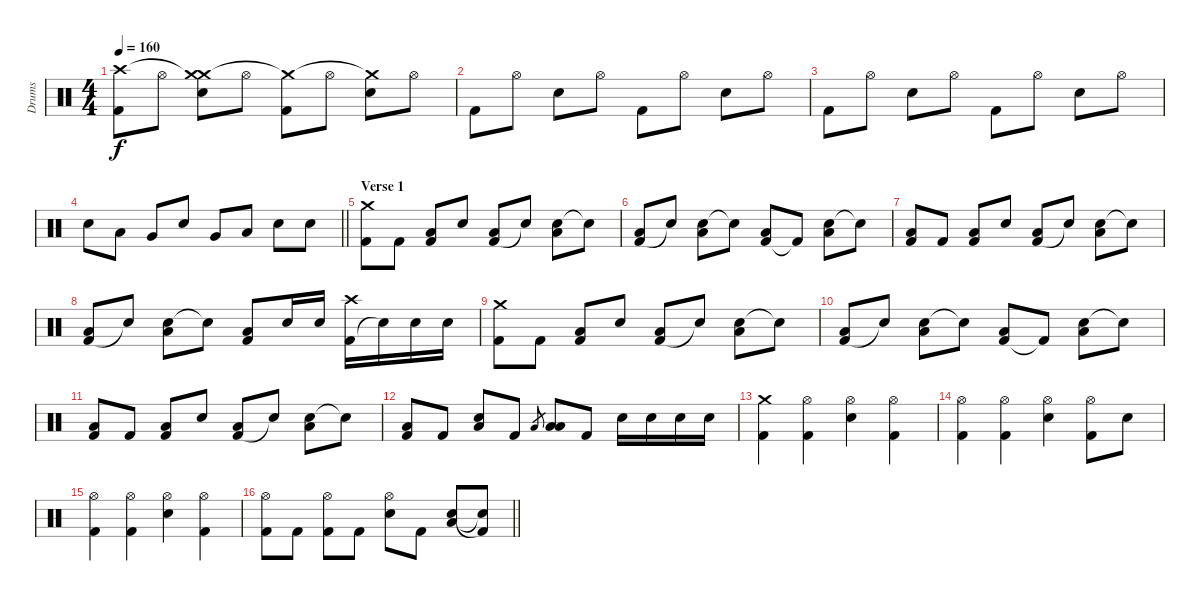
\track ("Drums" "Drums") {instrument percussion}
\staff {score}
\articulation defaults
\ts (4 4)
\tempo 160
\clef neutral
\ks c
("Kick (hit) 2" "Crash high (hit)").8{dy f} "Hi-Hat (open)".8 ("Electric Snare (hit)" "Crash medium (hit)"{t} "Crash medium (hit)").8 "Hi-Hat (open)".8 ("Kick (hit) 2" "Crash medium (hit)"{t}).8 "Hi-Hat (open)".8 ("Electric Snare (hit)" "Crash medium (hit)"{t}).8 "Hi-Hat (open)".8 |
"Kick (hit) 2".8 "Hi-Hat (open)".8 "Electric Snare (hit)".8 "Hi-Hat (open)".8 "Kick (hit) 2".8 "Hi-Hat (open)".8 "Electric Snare (hit)".8 "Hi-Hat (open)".8 |
"Kick (hit) 2".8 "Hi-Hat (open)".8 "Electric Snare (hit)".8 "Hi-Hat (open)".8 "Kick (hit) 2".8 "Hi-Hat (open)".8 "Electric Snare (hit)".8 "Hi-Hat (open)".8 |
\barLineRight lightlight "Electric Snare (hit)".8 "Low Tom (hit)".8 "Very Low Tom (hit)".8 "Electric Snare (hit)".8 "Very Low Tom (hit)".8 "Low Floor Tom (hit)".8 "Electric Snare (hit)".8 "Electric Snare (hit)".8
|
\section ("" "Verse 1")
("Kick (hit) 2" "Crash medium (hit)").8 "Kick (hit) 2".8 ("Kick (hit) 2" "Low Floor Tom (hit)").8 "Electric Snare (hit)".8 ("Kick (hit) 2" "Low Floor Tom (hit)").8 "Snare (hit)"{t}.8 ("Electric Snare (hit)" "Low Floor Tom (hit)").8 "Snare (hit)"{t}.8 |
("Kick (hit) 2" "Low Floor Tom (hit)").8 "Snare (hit)"{t}.8 ("Electric Snare (hit)" "Low Floor Tom (hit)").8 "Snare (hit)"{t}.8 ("Kick (hit) 2" "Low Floor Tom (hit)").8 "Kick (hit) 2"{t}.8 ("Electric Snare (hit)" "Low Floor Tom (hit)").8 "Snare (hit)"{t}.8 |
("Kick (hit) 2" "Low Floor Tom (hit)").8 "Kick (hit) 2".8 ("Kick (hit) 2" "Low Floor Tom (hit)").8 "Electric Snare (hit)".8 ("Kick (hit) 2" "Low Floor Tom (hit)").8 "Snare (hit)"{t}.8 ("Electric Snare (hit)" "Low Floor Tom (hit)").8 "Snare (hit)"{t}.8 |
("Kick (hit) 2" "Low Floor Tom (hit)").8 "Snare (hit)"{t}.8 ("Electric Snare (hit)" "Low Floor Tom (hit)").8 "Snare (hit)"{t}.8 ("Kick (hit) 2" "Low Floor Tom (hit)").8 "Electric Snare (hit)".16 "Electric Snare (hit)".16 ("Kick (hit) 2" "Crash high (hit)").16 "Snare (hit)"{t}.16 "Electric Snare (hit)".16 "Electric Snare (hit)".16 |
("Kick (hit) 2" "Crash medium (hit)").8 "Kick (hit) 2".8 ("Kick (hit) 2" "Low Floor Tom (hit)").8 "Electric Snare (hit)".8 ("Kick (hit) 2" "Low Floor Tom (hit)").8 "Snare (hit)"{t}.8 ("Electric Snare (hit)" "Low Floor Tom (hit)").8 "Snare (hit)"{t}.8 |
("Kick (hit) 2" "Low Floor Tom (hit)").8 "Snare (hit)"{t}.8 ("Electric Snare (hit)" "Low Floor Tom (hit)").8 "Snare (hit)"{t}.8 ("Kick (hit) 2" "Low Floor Tom (hit)").8 "Kick (hit) 2"{t}.8 ("Electric Snare (hit)" "Low Floor Tom (hit)").8 "Snare (hit)"{t}.8 |
("Kick (hit) 2" "Low Floor Tom (hit)").8 "Kick (hit) 2".8 ("Kick (hit) 2" "Low Floor Tom (hit)").8 "Electric Snare (hit)".8 ("Kick (hit) 2" "Low Floor Tom (hit)").8 "Snare (hit)"{t}.8 ("Electric Snare (hit)" "Low Floor Tom (hit)").8 "Snare (hit)"{t}.8 |
("Kick (hit) 2" "Low Floor Tom (hit)").8 "Kick (hit) 2".8 ("Electric Snare (hit)" "Low Floor Tom (hit)").8 "Kick (hit) 2".8 "Low Tom (hit)".8{gr} ("Low Tom (hit)" "Low Floor Tom (hit)").8 "Kick (hit) 2".8 "Electric Snare (hit)".16 "Electric Snare (hit)".16 "Electric Snare (hit)".16 "Electric Snare (hit)".16 |
("Kick (hit) 2" "Crash medium (hit)").4 ("Kick (hit) 2" "Hi-Hat (open)").4 ("Electric Snare (hit)" "Hi-Hat (open)").4 ("Kick (hit) 2" "Hi-Hat (open)").4 |
("Kick (hit) 2" "Hi-Hat (open)").4 ("Kick (hit) 2" "Hi-Hat (open)").4 ("Electric Snare (hit)" "Hi-Hat (open)").4 ("Kick (hit) 2" "Hi-Hat (open)").8 "Electric Snare (hit)".8 |
("Kick (hit) 2" "Hi-Hat (open)").4 ("Kick (hit) 2" "Hi-Hat (open)").4 ("Electric Snare (hit)" "Hi-Hat (open)").4 ("Kick (hit) 2" "Hi-Hat (open)").4 |
\barLineRight lightlight
("Kick (hit) 2" "Hi-Hat (open)").8 "Kick (hit) 2".8 ("Kick (hit) 2" "Hi-Hat (open)").8 "Kick (hit) 2".8 ("Electric Snare (hit)" "Hi-Hat (open)").8 "Kick (hit) 2".8 ("Electric Snare (hit)" "Low Floor Tom (hit)").8 ("Kick (hit) 2"{t} "Snare (hit)"{t}).8
